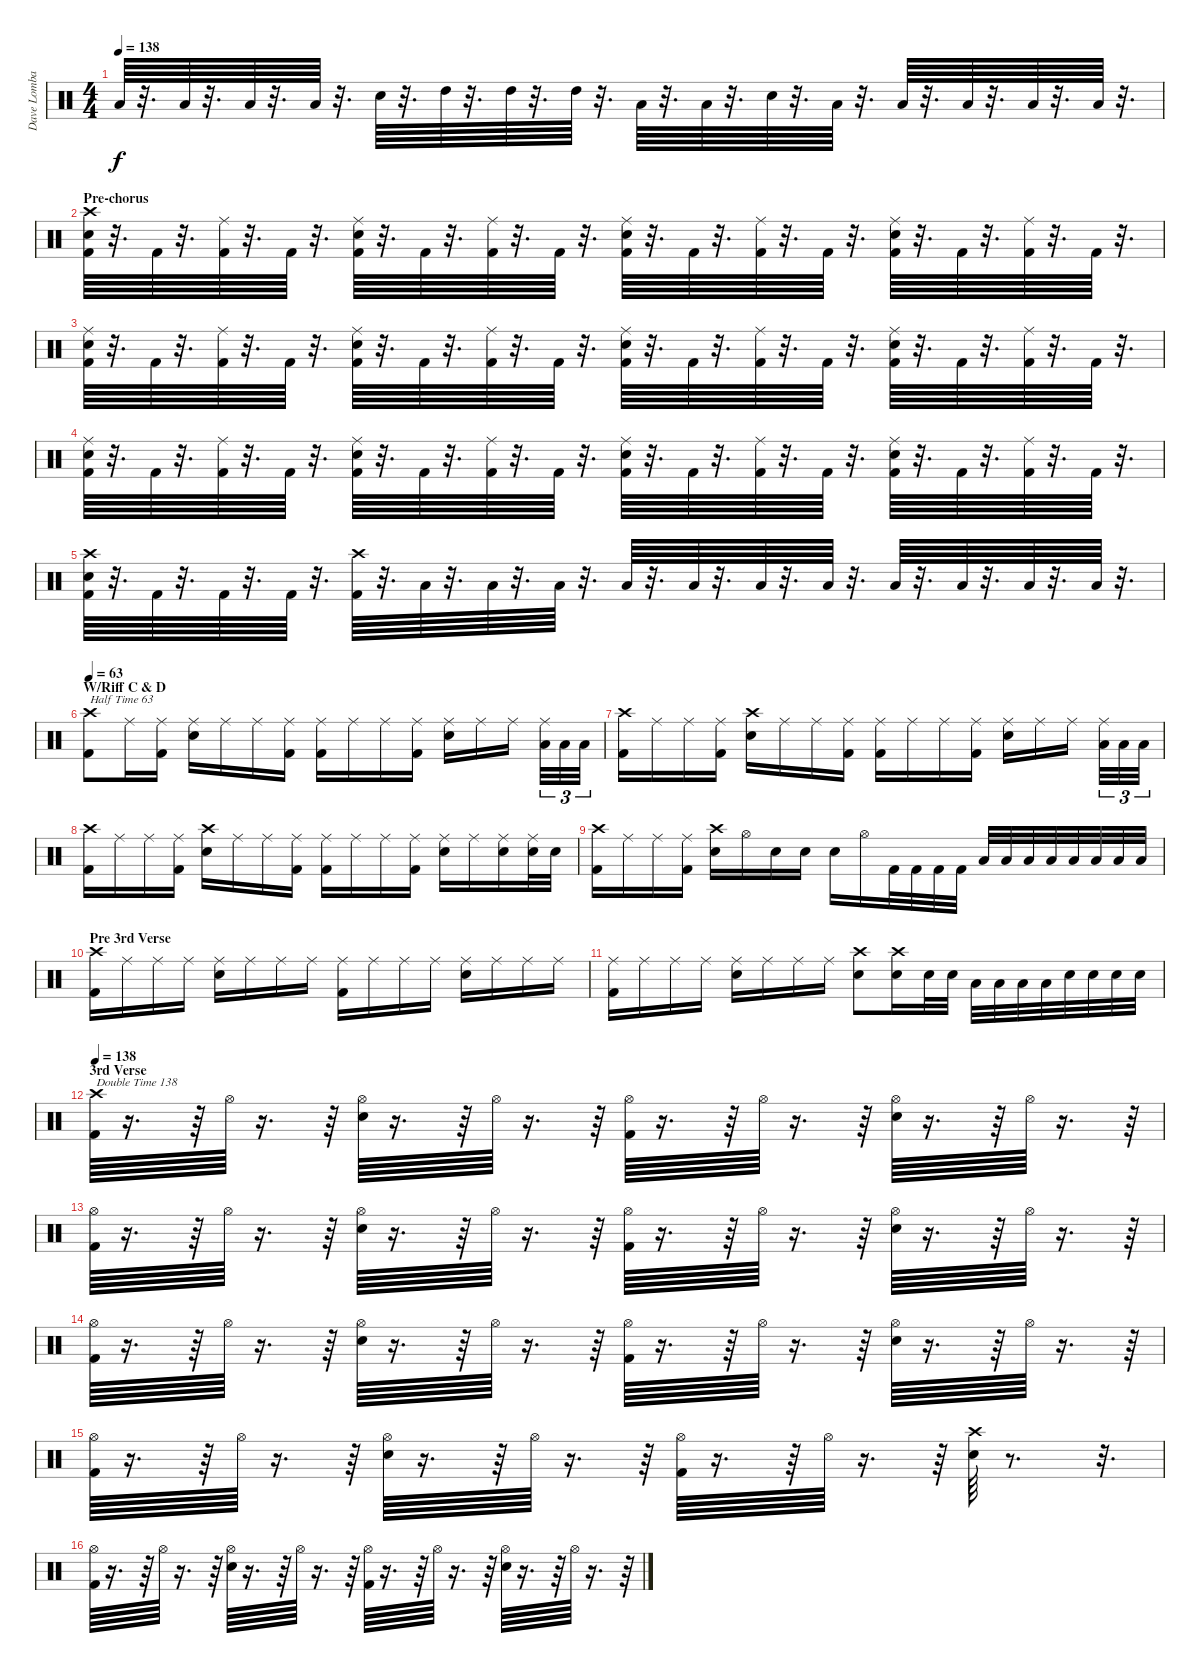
\track ("Dave Lombardo" "Dave Lomba") {instrument percussion}
\staff {score}
\articulation defaults
\ts (4 4)
\tempo 138
\clef neutral
\ks c "Low Tom (hit)".64{dy f}
r.32{d} "Low Tom (hit)".64 r.32{d} "Low Tom (hit)".64 r.32{d} "Low Tom (hit)".64 r.32{d} "Snare (hit) 2".64 r.32{d} "High Tom (hit)".64 r.32{d} "High Tom (hit)".64 r.32{d} "High Tom (hit)".64 r.32{d} "Low Tom (hit)".64 r.32{d} "Low Tom (hit)".64 r.32{d} "Snare (hit) 2".64 r.32{d} "Low Tom (hit)".64 r.32{d} "Low Floor Tom (hit)".64 r.32{d} "Low Floor Tom (hit)".64 r.32{d} "Low Floor Tom (hit)".64 r.32{d} "Low Floor Tom (hit)".64 r.32{d} |
\section ("" "Pre-chorus")
("Kick (hit) 2" "Snare (hit) 2" "Crash high (hit)").64 r.32{d} "Kick (hit) 2".64 r.32{d} ("Kick (hit) 2" "Ride (middle)").64 r.32{d} "Kick (hit) 2".64 r.32{d} ("Kick (hit) 2" "Snare (hit) 2" "Ride (middle)").64 r.32{d} "Kick (hit) 2".64 r.32{d} ("Kick (hit) 2" "Ride (middle)").64 r.32{d} "Kick (hit) 2".64 r.32{d} ("Kick (hit) 2" "Snare (hit) 2" "Ride (middle)").64 r.32{d} "Kick (hit) 2".64 r.32{d} ("Kick (hit) 2" "Ride (middle)").64 r.32{d} "Kick (hit) 2".64 r.32{d} ("Kick (hit) 2" "Snare (hit) 2" "Ride (middle)").64 r.32{d} "Kick (hit) 2".64 r.32{d} ("Kick (hit) 2" "Ride (middle)").64 r.32{d} "Kick (hit) 2".64 r.32{d} |
("Kick (hit) 2" "Snare (hit) 2" "Ride (middle)").64 r.32{d} "Kick (hit) 2".64 r.32{d} ("Kick (hit) 2" "Ride (middle)").64 r.32{d} "Kick (hit) 2".64 r.32{d} ("Kick (hit) 2" "Snare (hit) 2" "Ride (middle)").64 r.32{d} "Kick (hit) 2".64 r.32{d} ("Kick (hit) 2" "Ride (middle)").64 r.32{d} "Kick (hit) 2".64 r.32{d} ("Kick (hit) 2" "Snare (hit) 2" "Ride (middle)").64 r.32{d} "Kick (hit) 2".64 r.32{d} ("Kick (hit) 2" "Ride (middle)").64 r.32{d} "Kick (hit) 2".64 r.32{d} ("Kick (hit) 2" "Snare (hit) 2" "Ride (middle)").64 r.32{d} "Kick (hit) 2".64 r.32{d} ("Kick (hit) 2" "Ride (middle)").64 r.32{d} "Kick (hit) 2".64 r.32{d} |
("Kick (hit) 2" "Snare (hit) 2" "Ride (middle)").64 r.32{d} "Kick (hit) 2".64 r.32{d} ("Kick (hit) 2" "Ride (middle)").64 r.32{d} "Kick (hit) 2".64 r.32{d} ("Kick (hit) 2" "Snare (hit) 2" "Ride (middle)").64 r.32{d} "Kick (hit) 2".64 r.32{d} ("Kick (hit) 2" "Ride (middle)").64 r.32{d} "Kick (hit) 2".64 r.32{d} ("Kick (hit) 2" "Snare (hit) 2" "Ride (middle)").64 r.32{d} "Kick (hit) 2".64 r.32{d} ("Kick (hit) 2" "Ride (middle)").64 r.32{d} "Kick (hit) 2".64 r.32{d} ("Kick (hit) 2" "Snare (hit) 2" "Ride (middle)").64 r.32{d} "Kick (hit) 2".64 r.32{d} ("Kick (hit) 2" "Ride (middle)").64 r.32{d} "Kick (hit) 2".64 r.32{d} |
("Crash high (hit)" "Kick (hit) 2" "Snare (hit) 2").64 r.32{d} "Kick (hit) 2".64 r.32{d} "Kick (hit) 2".64 r.32{d} "Kick (hit) 2".64 r.32{d} ("Kick (hit) 2" "Crash high (hit)").64 r.32{d} "Low Tom (hit)".64 r.32{d} "Low Tom (hit)".64 r.32{d} "Low Tom (hit)".64 r.32{d} "Low Tom (hit)".64 r.32{d} "Low Tom (hit)".64 r.32{d} "Low Tom (hit)".64 r.32{d} "Low Floor Tom (hit)".64 r.32{d} "Low Floor Tom (hit)".64 r.32{d} "Low Floor Tom (hit)".64 r.32{d} "Low Floor Tom (hit)".64 r.32{d} "Low Floor Tom (hit)".64 r.32{d} |
\section ("" "W/Riff C & D")
\tempo 63
("Crash high (hit)" "Kick (hit) 2").8{txt "Half Time 63"} "Ride (middle)".16 ("Kick (hit) 2" "Ride (middle)").16 ("Snare (hit) 2" "Ride (middle)").16 "Ride (middle)".16 "Ride (middle)".16 ("Kick (hit) 2" "Ride (middle)").16 ("Kick (hit) 2" "Ride (middle)").16 "Ride (middle)".16 "Ride (middle)".16 ("Kick (hit) 2" "Ride (middle)").16 ("Snare (hit) 2" "Ride (middle)").16 "Ride (middle)".16 "Ride (middle)".16 ("Low Tom (hit)" "Ride (middle)").32{tu (3 2)} "Low Tom (hit)".32{tu (3 2)} "Low Tom (hit)".32{tu (3 2)} |
("Kick (hit) 2" "Crash high (hit)").16 "Ride (middle)".16 "Ride (middle)".16 ("Ride (middle)" "Kick (hit) 2").16 ("Snare (hit) 2" "Crash high (hit)").16 "Ride (middle)".16 "Ride (middle)".16 ("Ride (middle)" "Kick (hit) 2").16 ("Kick (hit) 2" "Ride (middle)").16 "Ride (middle)".16 "Ride (middle)".16 ("Ride (middle)" "Kick (hit) 2").16 ("Ride (middle)" "Snare (hit) 2").16 "Ride (middle)".16 "Ride (middle)".16 ("Ride (middle)" "Low Tom (hit)").32{tu (3 2)} "Low Tom (hit)".32{tu (3 2)} "Low Tom (hit)".32{tu (3 2)} |
("Crash high (hit)" "Kick (hit) 2").16 "Ride (middle)".16 "Ride (middle)".16 ("Kick (hit) 2" "Ride (middle)").16 ("Snare (hit) 2" "Crash high (hit)").16 "Ride (middle)".16 "Ride (middle)".16 ("Ride (middle)" "Kick (hit) 2").16 ("Kick (hit) 2" "Ride (middle)").16 "Ride (middle)".16 "Ride (middle)".16 ("Kick (hit) 2" "Ride (middle)").16 ("Snare (hit) 2" "Ride (middle)").16 "Ride (middle)".16 ("Ride (middle)" "Snare (hit) 2").16 ("Ride (middle)" "Snare (hit) 2").32 "Snare (hit) 2".32 |
("Kick (hit) 2" "Crash high (hit)").16 "Ride (middle)".16 "Ride (middle)".16 ("Ride (middle)" "Kick (hit) 2").16 ("Crash high (hit)" "Snare (hit) 2").16 "Hi-Hat (open)".16 "Snare (hit) 2".16 "Snare (hit) 2".16 "Snare (hit) 2".16 "Hi-Hat (open)".16 "Kick (hit) 2".32 "Kick (hit) 2".32 "Kick (hit) 2".32 "Kick (hit) 2".32 "Low Tom (hit)".32 "Low Tom (hit)".32 "Low Tom (hit)".32 "Low Tom (hit)".32 "Low Floor Tom (hit)".32 "Low Floor Tom (hit)".32 "Low Floor Tom (hit)".32 "Low Floor Tom (hit)".32 |
\section ("" "Pre 3rd Verse")
("Kick (hit) 2" "Crash high (hit)").16 "Ride (middle)".16 "Ride (middle)".16 "Ride (middle)".16 ("Ride (middle)" "Snare (hit) 2").16 "Ride (middle)".16 "Ride (middle)".16 "Ride (middle)".16 ("Kick (hit) 2" "Ride (middle)").16 "Ride (middle)".16 "Ride (middle)".16 "Ride (middle)".16 ("Ride (middle)" "Snare (hit) 2").16 "Ride (middle)".16 "Ride (middle)".16 "Ride (middle)".16 |
("Kick (hit) 2" "Ride (middle)").16 "Ride (middle)".16 "Ride (middle)".16 "Ride (middle)".16 ("Ride (middle)" "Snare (hit) 2").16 "Ride (middle)".16 "Ride (middle)".16 "Ride (middle)".16 ("Crash high (hit)" "Snare (hit) 2").8 ("Snare (hit) 2" "Crash high (hit)").16 "Snare (hit) 2".32 "Snare (hit) 2".32 "Low Tom (hit)".32 "Low Tom (hit)".32 "Low Tom (hit)".32 "Low Tom (hit)".32 "Snare (hit) 2".32 "Snare (hit) 2".32 "Snare (hit) 2".32 "Snare (hit) 2".32 |
\section ("" "3rd Verse")
\tempo 138
("Kick (hit) 2" "Crash high (hit)").64{txt "Double Time 138"} r.16{d} r.64 "Hi-Hat (open)".64 r.16{d} r.64 ("Snare (hit) 2" "Hi-Hat (open)").64 r.16{d} r.64 "Hi-Hat (open)".64 r.16{d} r.64 ("Kick (hit) 2" "Hi-Hat (open)").64 r.16{d} r.64 "Hi-Hat (open)".64 r.16{d} r.64 ("Snare (hit) 2" "Hi-Hat (open)").64 r.16{d} r.64 "Hi-Hat (open)".64 r.16{d} r.64 |
("Kick (hit) 2" "Hi-Hat (open)").64 r.16{d} r.64 "Hi-Hat (open)".64 r.16{d} r.64 ("Snare (hit) 2" "Hi-Hat (open)").64 r.16{d} r.64 "Hi-Hat (open)".64 r.16{d} r.64 ("Kick (hit) 2" "Hi-Hat (open)").64 r.16{d} r.64 "Hi-Hat (open)".64 r.16{d} r.64 ("Snare (hit) 2" "Hi-Hat (open)").64 r.16{d} r.64 "Hi-Hat (open)".64 r.16{d} r.64 |
("Kick (hit) 2" "Hi-Hat (open)").64 r.16{d} r.64 "Hi-Hat (open)".64 r.16{d} r.64 ("Snare (hit) 2" "Hi-Hat (open)").64 r.16{d} r.64 "Hi-Hat (open)".64 r.16{d} r.64 ("Kick (hit) 2" "Hi-Hat (open)").64 r.16{d} r.64 "Hi-Hat (open)".64 r.16{d} r.64 ("Snare (hit) 2" "Hi-Hat (open)").64 r.16{d} r.64 "Hi-Hat (open)".64 r.16{d} r.64 |
("Kick (hit) 2" "Hi-Hat (open)").64 r.16{d} r.64 "Hi-Hat (open)".64 r.16{d} r.64 ("Snare (hit) 2" "Hi-Hat (open)").64 r.16{d} r.64 "Hi-Hat (open)".64 r.16{d} r.64 ("Kick (hit) 2" "Hi-Hat (open)").64 r.16{d} r.64 "Hi-Hat (open)".64 r.16{d} r.64 ("Snare (hit) 2" "Crash high (hit)").64 r.8{d} r.32{d} |
("Kick (hit) 2" "Hi-Hat (open)").64 r.16{d} r.64 "Hi-Hat (open)".64 r.16{d} r.64 ("Snare (hit) 2" "Hi-Hat (open)").64 r.16{d} r.64 "Hi-Hat (open)".64 r.16{d} r.64 ("Kick (hit) 2" "Hi-Hat (open)").64 r.16{d} r.64 "Hi-Hat (open)".64 r.16{d} r.64 ("Snare (hit) 2" "Hi-Hat (open)").64 r.16{d} r.64 "Hi-Hat (open)".64 r.16{d} r.64
